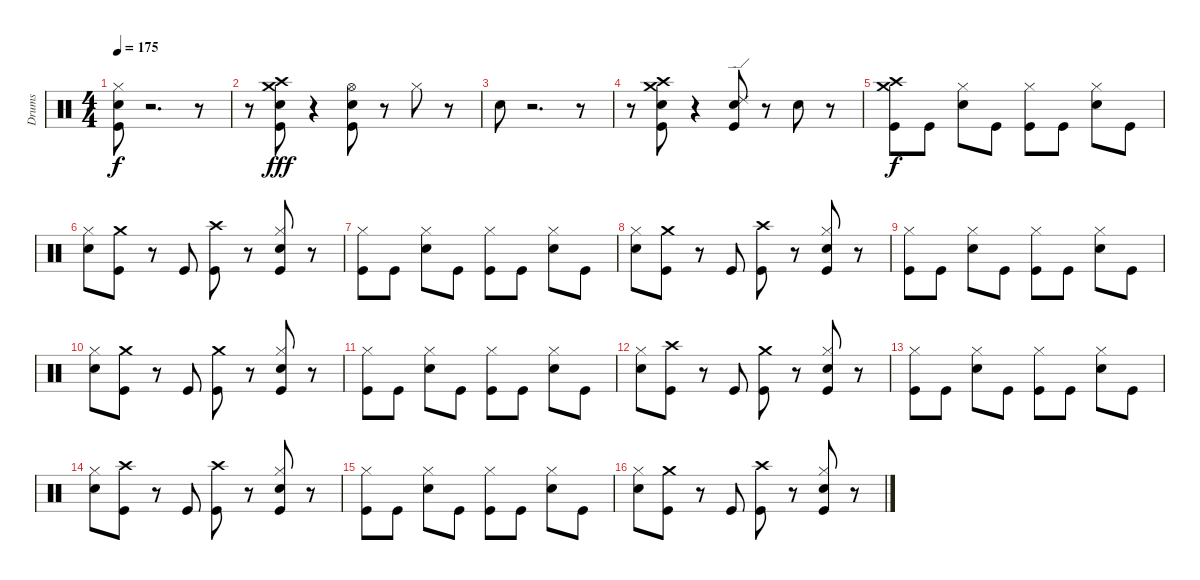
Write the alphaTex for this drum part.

\track ("Drums" "Drums") {instrument percussion}
\staff {score}
\articulation defaults
\ts (4 4)
\tempo 175
\clef neutral
\ks c
("Kick (hit)" "Electric Snare (hit)" "Hi-Hat (closed)").8{dy f} r.2{d} r.8 |
r.8 ("Kick (hit)" "Snare (hit) 2" "Crash high (hit)" "Crash medium (hit)").8{dy fff} r.4 ("Hi-Hat (open)" "Electric Snare (hit)" "Kick (hit)").8 r.8 "Hi-Hat (closed)".8 r.8 |
"Electric Snare (hit)".8 r.2{d} r.8 |
r.8 ("Crash high (hit)" "Kick (hit)" "Electric Snare (hit)" "Crash medium (hit)").8 r.4 ("Kick (hit)" "Electric Snare (hit)" "Ride (edge) 2").8 r.8 "Electric Snare (hit)".8 r.8 |
("Kick (hit)" "Crash high (hit)" "Crash medium (hit)").8{dy f} "Kick (hit)".8 ("Hi-Hat (closed)" "Electric Snare (hit)").8 "Kick (hit)".8 ("Hi-Hat (closed)" "Kick (hit)").8 "Kick (hit)".8 ("Hi-Hat (closed)" "Electric Snare (hit)").8 "Kick (hit)".8 |
("Electric Snare (hit)" "Hi-Hat (closed)").8 ("Crash medium (hit)" "Kick (hit)").8 r.8 "Kick (hit)".8 ("Crash high (hit)" "Kick (hit)").8 r.8 ("Hi-Hat (closed)" "Snare (hit) 2" "Kick (hit)").8 r.8 |
("Hi-Hat (closed)" "Kick (hit)").8 "Kick (hit)".8 ("Hi-Hat (closed)" "Electric Snare (hit)").8 "Kick (hit)".8 ("Hi-Hat (closed)" "Kick (hit)").8 "Kick (hit)".8 ("Hi-Hat (closed)" "Electric Snare (hit)").8 "Kick (hit)".8 |
("Electric Snare (hit)" "Hi-Hat (closed)").8 ("Crash medium (hit)" "Kick (hit)").8 r.8 "Kick (hit)".8 ("Crash high (hit)" "Kick (hit)").8 r.8 ("Hi-Hat (closed)" "Snare (hit) 2" "Kick (hit)").8 r.8 |
("Hi-Hat (closed)" "Kick (hit)").8 "Kick (hit)".8 ("Hi-Hat (closed)" "Electric Snare (hit)").8 "Kick (hit)".8 ("Hi-Hat (closed)" "Kick (hit)").8 "Kick (hit)".8 ("Hi-Hat (closed)" "Electric Snare (hit)").8 "Kick (hit)".8 |
("Electric Snare (hit)" "Hi-Hat (closed)").8 ("Crash medium (hit)" "Kick (hit)").8 r.8 "Kick (hit)".8 ("Crash medium (hit)" "Kick (hit)").8 r.8 ("Hi-Hat (closed)" "Snare (hit) 2" "Kick (hit)").8 r.8 |
("Hi-Hat (closed)" "Kick (hit)").8 "Kick (hit)".8 ("Hi-Hat (closed)" "Electric Snare (hit)").8 "Kick (hit)".8 ("Hi-Hat (closed)" "Kick (hit)").8 "Kick (hit)".8 ("Hi-Hat (closed)" "Electric Snare (hit)").8 "Kick (hit)".8 |
("Electric Snare (hit)" "Hi-Hat (closed)").8 ("Kick (hit)" "Crash high (hit)").8 r.8 "Kick (hit)".8 ("Kick (hit)" "Crash medium (hit)").8 r.8 ("Hi-Hat (closed)" "Snare (hit) 2" "Kick (hit)").8 r.8 |
("Hi-Hat (closed)" "Kick (hit)").8 "Kick (hit)".8 ("Hi-Hat (closed)" "Electric Snare (hit)").8 "Kick (hit)".8 ("Hi-Hat (closed)" "Kick (hit)").8 "Kick (hit)".8 ("Hi-Hat (closed)" "Electric Snare (hit)").8 "Kick (hit)".8 |
("Electric Snare (hit)" "Hi-Hat (closed)").8 ("Crash high (hit)" "Kick (hit)").8 r.8 "Kick (hit)".8 ("Crash high (hit)" "Kick (hit)").8 r.8 ("Hi-Hat (closed)" "Snare (hit) 2" "Kick (hit)").8 r.8 |
("Hi-Hat (closed)" "Kick (hit)").8 "Kick (hit)".8 ("Hi-Hat (closed)" "Electric Snare (hit)").8 "Kick (hit)".8 ("Hi-Hat (closed)" "Kick (hit)").8 "Kick (hit)".8 ("Hi-Hat (closed)" "Electric Snare (hit)").8 "Kick (hit)".8 |
("Electric Snare (hit)" "Hi-Hat (closed)").8 ("Crash medium (hit)" "Kick (hit)").8 r.8 "Kick (hit)".8 ("Crash high (hit)" "Kick (hit)").8 r.8 ("Hi-Hat (closed)" "Snare (hit) 2" "Kick (hit)").8 r.8
